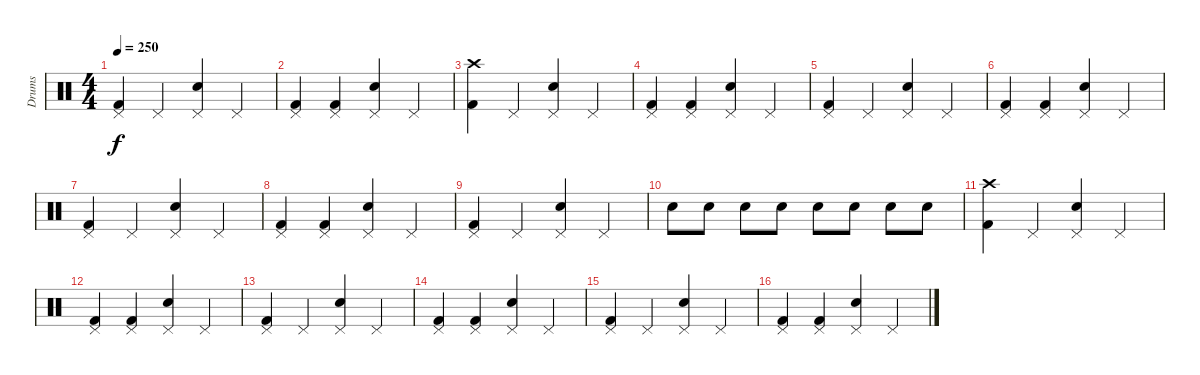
\track ("Drums" "Drums") {instrument percussion}
\staff {score}
\articulation defaults
\ts (4 4)
\tempo 250
\clef neutral
\ks c
("Pedal Hi-Hat (hit)" "Kick (hit) 2").4{dy f} "Pedal Hi-Hat (hit)".4 ("Pedal Hi-Hat (hit)" "Electric Snare (hit)").4 "Pedal Hi-Hat (hit)".4 |
("Pedal Hi-Hat (hit)" "Kick (hit) 2").4 ("Pedal Hi-Hat (hit)" "Kick (hit) 2").4 ("Pedal Hi-Hat (hit)" "Electric Snare (hit)").4 "Pedal Hi-Hat (hit)".4 |
("Kick (hit) 2" "Crash high (hit)").4 "Pedal Hi-Hat (hit)".4 ("Pedal Hi-Hat (hit)" "Electric Snare (hit)").4 "Pedal Hi-Hat (hit)".4 |
("Pedal Hi-Hat (hit)" "Kick (hit) 2").4 ("Pedal Hi-Hat (hit)" "Kick (hit) 2").4 ("Pedal Hi-Hat (hit)" "Electric Snare (hit)").4 "Pedal Hi-Hat (hit)".4 |
("Pedal Hi-Hat (hit)" "Kick (hit) 2").4 "Pedal Hi-Hat (hit)".4 ("Pedal Hi-Hat (hit)" "Electric Snare (hit)").4 "Pedal Hi-Hat (hit)".4 |
("Pedal Hi-Hat (hit)" "Kick (hit) 2").4 ("Pedal Hi-Hat (hit)" "Kick (hit) 2").4 ("Pedal Hi-Hat (hit)" "Electric Snare (hit)").4 "Pedal Hi-Hat (hit)".4 |
("Pedal Hi-Hat (hit)" "Kick (hit) 2").4 "Pedal Hi-Hat (hit)".4 ("Pedal Hi-Hat (hit)" "Electric Snare (hit)").4 "Pedal Hi-Hat (hit)".4 |
("Pedal Hi-Hat (hit)" "Kick (hit) 2").4 ("Pedal Hi-Hat (hit)" "Kick (hit) 2").4 ("Pedal Hi-Hat (hit)" "Electric Snare (hit)").4 "Pedal Hi-Hat (hit)".4 |
("Pedal Hi-Hat (hit)" "Kick (hit) 2").4 "Pedal Hi-Hat (hit)".4 ("Pedal Hi-Hat (hit)" "Electric Snare (hit)").4 "Pedal Hi-Hat (hit)".4 |
"Electric Snare (hit)".8 "Electric Snare (hit)".8 "Electric Snare (hit)".8 "Electric Snare (hit)".8 "Electric Snare (hit)".8 "Electric Snare (hit)".8 "Electric Snare (hit)".8 "Electric Snare (hit)".8 |
("Kick (hit) 2" "Crash high (hit)").4 "Pedal Hi-Hat (hit)".4 ("Pedal Hi-Hat (hit)" "Electric Snare (hit)").4 "Pedal Hi-Hat (hit)".4 |
("Pedal Hi-Hat (hit)" "Kick (hit) 2").4 ("Pedal Hi-Hat (hit)" "Kick (hit) 2").4 ("Pedal Hi-Hat (hit)" "Electric Snare (hit)").4 "Pedal Hi-Hat (hit)".4 |
("Pedal Hi-Hat (hit)" "Kick (hit) 2").4 "Pedal Hi-Hat (hit)".4 ("Pedal Hi-Hat (hit)" "Electric Snare (hit)").4 "Pedal Hi-Hat (hit)".4 |
("Pedal Hi-Hat (hit)" "Kick (hit) 2").4 ("Pedal Hi-Hat (hit)" "Kick (hit) 2").4 ("Pedal Hi-Hat (hit)" "Electric Snare (hit)").4 "Pedal Hi-Hat (hit)".4 |
("Pedal Hi-Hat (hit)" "Kick (hit) 2").4 "Pedal Hi-Hat (hit)".4 ("Pedal Hi-Hat (hit)" "Electric Snare (hit)").4 "Pedal Hi-Hat (hit)".4 |
("Pedal Hi-Hat (hit)" "Kick (hit) 2").4 ("Pedal Hi-Hat (hit)" "Kick (hit) 2").4 ("Pedal Hi-Hat (hit)" "Electric Snare (hit)").4 "Pedal Hi-Hat (hit)".4
